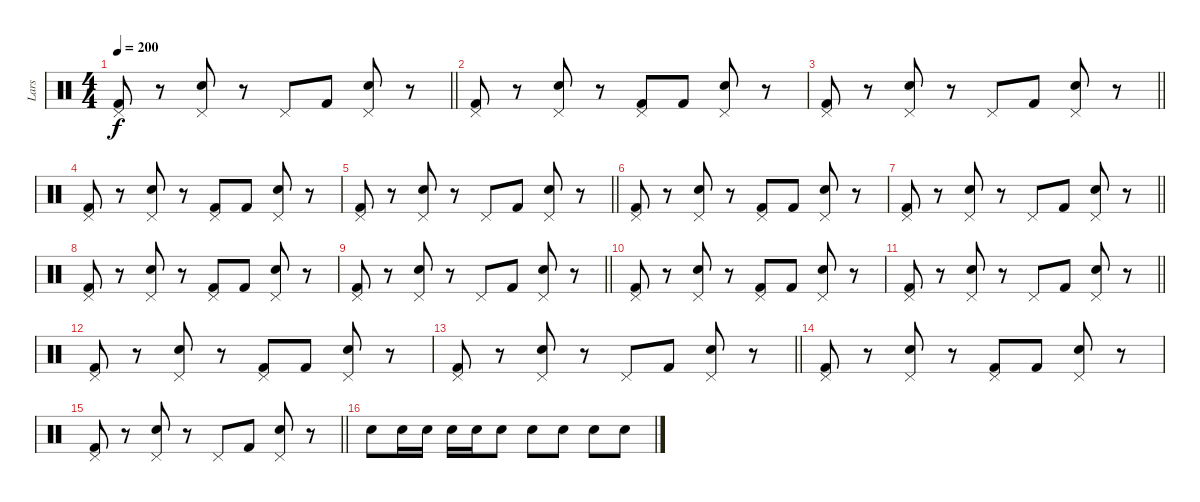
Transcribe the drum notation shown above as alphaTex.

\track ("Lars" "Lars") {instrument percussion}
\staff {score}
\articulation defaults
\ts (4 4)
\tempo 200
\clef neutral
\barLineRight lightlight
\ks c
("Pedal Hi-Hat (hit)" "Kick (hit) 2").8{dy f} r.8 ("Pedal Hi-Hat (hit)" "Snare (hit) 2").8 r.8 "Pedal Hi-Hat (hit)".8 "Kick (hit) 2".8 ("Pedal Hi-Hat (hit)" "Snare (hit) 2").8 r.8 |
("Pedal Hi-Hat (hit)" "Kick (hit) 2").8 r.8 ("Pedal Hi-Hat (hit)" "Snare (hit) 2").8 r.8 ("Pedal Hi-Hat (hit)" "Kick (hit) 2").8 "Kick (hit) 2".8 ("Pedal Hi-Hat (hit)" "Snare (hit) 2").8 r.8 |
\barLineRight lightlight
("Pedal Hi-Hat (hit)" "Kick (hit) 2").8 r.8 ("Pedal Hi-Hat (hit)" "Snare (hit) 2").8 r.8 "Pedal Hi-Hat (hit)".8 "Kick (hit) 2".8 ("Pedal Hi-Hat (hit)" "Snare (hit) 2").8 r.8 |
("Pedal Hi-Hat (hit)" "Kick (hit) 2").8 r.8 ("Pedal Hi-Hat (hit)" "Snare (hit) 2").8 r.8 ("Pedal Hi-Hat (hit)" "Kick (hit) 2").8 "Kick (hit) 2".8 ("Pedal Hi-Hat (hit)" "Snare (hit) 2").8 r.8 |
\barLineRight lightlight
("Pedal Hi-Hat (hit)" "Kick (hit) 2").8 r.8 ("Pedal Hi-Hat (hit)" "Snare (hit) 2").8 r.8 "Pedal Hi-Hat (hit)".8 "Kick (hit) 2".8 ("Pedal Hi-Hat (hit)" "Snare (hit) 2").8 r.8 |
("Pedal Hi-Hat (hit)" "Kick (hit) 2").8 r.8 ("Pedal Hi-Hat (hit)" "Snare (hit) 2").8 r.8 ("Pedal Hi-Hat (hit)" "Kick (hit) 2").8 "Kick (hit) 2".8 ("Pedal Hi-Hat (hit)" "Snare (hit) 2").8 r.8 |
\barLineRight lightlight
("Pedal Hi-Hat (hit)" "Kick (hit) 2").8 r.8 ("Pedal Hi-Hat (hit)" "Snare (hit) 2").8 r.8 "Pedal Hi-Hat (hit)".8 "Kick (hit) 2".8 ("Pedal Hi-Hat (hit)" "Snare (hit) 2").8 r.8 |
("Pedal Hi-Hat (hit)" "Kick (hit) 2").8 r.8 ("Pedal Hi-Hat (hit)" "Snare (hit) 2").8 r.8 ("Pedal Hi-Hat (hit)" "Kick (hit) 2").8 "Kick (hit) 2".8 ("Pedal Hi-Hat (hit)" "Snare (hit) 2").8 r.8 |
\barLineRight lightlight
("Pedal Hi-Hat (hit)" "Kick (hit) 2").8 r.8 ("Pedal Hi-Hat (hit)" "Snare (hit) 2").8 r.8 "Pedal Hi-Hat (hit)".8 "Kick (hit) 2".8 ("Pedal Hi-Hat (hit)" "Snare (hit) 2").8 r.8 |
("Pedal Hi-Hat (hit)" "Kick (hit) 2").8 r.8 ("Pedal Hi-Hat (hit)" "Snare (hit) 2").8 r.8 ("Pedal Hi-Hat (hit)" "Kick (hit) 2").8 "Kick (hit) 2".8 ("Pedal Hi-Hat (hit)" "Snare (hit) 2").8 r.8 |
\barLineRight lightlight
("Pedal Hi-Hat (hit)" "Kick (hit) 2").8 r.8 ("Pedal Hi-Hat (hit)" "Snare (hit) 2").8 r.8 "Pedal Hi-Hat (hit)".8 "Kick (hit) 2".8 ("Pedal Hi-Hat (hit)" "Snare (hit) 2").8 r.8 |
("Pedal Hi-Hat (hit)" "Kick (hit) 2").8 r.8 ("Pedal Hi-Hat (hit)" "Snare (hit) 2").8 r.8 ("Pedal Hi-Hat (hit)" "Kick (hit) 2").8 "Kick (hit) 2".8 ("Pedal Hi-Hat (hit)" "Snare (hit) 2").8 r.8 |
\barLineRight lightlight
("Pedal Hi-Hat (hit)" "Kick (hit) 2").8 r.8 ("Pedal Hi-Hat (hit)" "Snare (hit) 2").8 r.8 "Pedal Hi-Hat (hit)".8 "Kick (hit) 2".8 ("Pedal Hi-Hat (hit)" "Snare (hit) 2").8 r.8 |
("Pedal Hi-Hat (hit)" "Kick (hit) 2").8 r.8 ("Pedal Hi-Hat (hit)" "Snare (hit) 2").8 r.8 ("Pedal Hi-Hat (hit)" "Kick (hit) 2").8 "Kick (hit) 2".8 ("Pedal Hi-Hat (hit)" "Snare (hit) 2").8 r.8 |
\barLineRight lightlight
("Pedal Hi-Hat (hit)" "Kick (hit) 2").8 r.8 ("Pedal Hi-Hat (hit)" "Snare (hit) 2").8 r.8 "Pedal Hi-Hat (hit)".8 "Kick (hit) 2".8 ("Pedal Hi-Hat (hit)" "Snare (hit) 2").8 r.8 |
"Snare (hit) 2".8 "Snare (hit) 2".16 "Snare (hit) 2".16 "Snare (hit) 2".16 "Snare (hit) 2".16 "Snare (hit) 2".8 "Snare (hit) 2".8 "Snare (hit) 2".8 "Snare (hit) 2".8 "Snare (hit) 2".8
